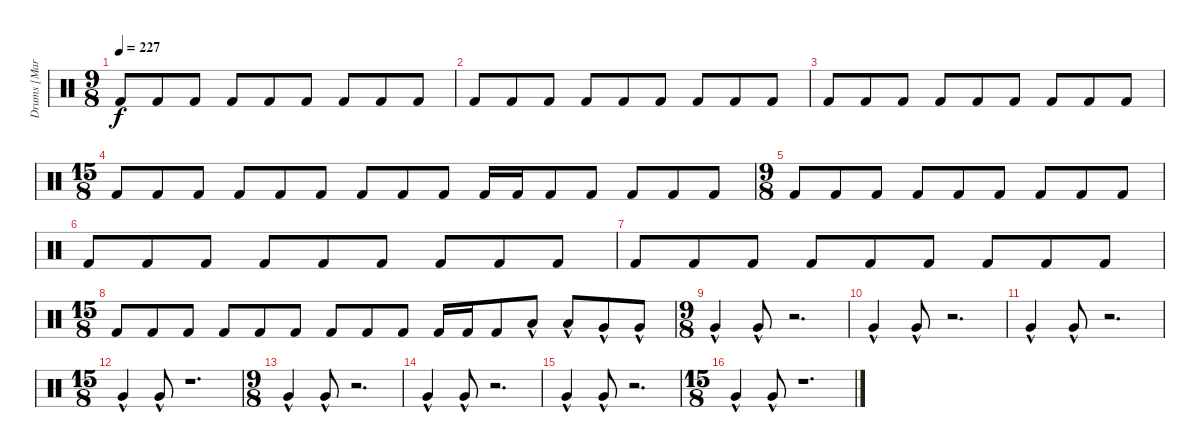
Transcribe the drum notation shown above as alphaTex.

\track ("Drums [Martin Lopez]" "Drums [Mar") {instrument percussion}
\staff {score}
\articulation defaults
\ts (9 8)
\tempo 227
\clef neutral
\ks c "Kick (hit) 2".8{dy f} "Kick (hit) 2".8 "Kick (hit) 2".8 "Kick (hit) 2".8 "Kick (hit) 2".8 "Kick (hit) 2".8 "Kick (hit) 2".8 "Kick (hit) 2".8 "Kick (hit) 2".8
|
"Kick (hit) 2".8 "Kick (hit) 2".8 "Kick (hit) 2".8 "Kick (hit) 2".8 "Kick (hit) 2".8 "Kick (hit) 2".8 "Kick (hit) 2".8 "Kick (hit) 2".8 "Kick (hit) 2".8 |
"Kick (hit) 2".8 "Kick (hit) 2".8 "Kick (hit) 2".8 "Kick (hit) 2".8 "Kick (hit) 2".8 "Kick (hit) 2".8 "Kick (hit) 2".8 "Kick (hit) 2".8 "Kick (hit) 2".8 |
\ts (15 8)
"Kick (hit) 2".8 "Kick (hit) 2".8 "Kick (hit) 2".8 "Kick (hit) 2".8 "Kick (hit) 2".8 "Kick (hit) 2".8 "Kick (hit) 2".8 "Kick (hit) 2".8 "Kick (hit) 2".8 "Kick (hit) 2".16 "Kick (hit) 2".16 "Kick (hit) 2".8 "Kick (hit) 2".8 "Kick (hit) 2".8 "Kick (hit) 2".8 "Kick (hit) 2".8 |
\ts (9 8)
"Kick (hit) 2".8 "Kick (hit) 2".8 "Kick (hit) 2".8 "Kick (hit) 2".8 "Kick (hit) 2".8 "Kick (hit) 2".8 "Kick (hit) 2".8 "Kick (hit) 2".8 "Kick (hit) 2".8 |
"Kick (hit) 2".8 "Kick (hit) 2".8 "Kick (hit) 2".8 "Kick (hit) 2".8 "Kick (hit) 2".8 "Kick (hit) 2".8 "Kick (hit) 2".8 "Kick (hit) 2".8 "Kick (hit) 2".8 |
"Kick (hit) 2".8 "Kick (hit) 2".8 "Kick (hit) 2".8 "Kick (hit) 2".8 "Kick (hit) 2".8 "Kick (hit) 2".8 "Kick (hit) 2".8 "Kick (hit) 2".8 "Kick (hit) 2".8 |
\ts (15 8)
"Kick (hit) 2".8 "Kick (hit) 2".8 "Kick (hit) 2".8 "Kick (hit) 2".8 "Kick (hit) 2".8 "Kick (hit) 2".8 "Kick (hit) 2".8 "Kick (hit) 2".8 "Kick (hit) 2".8 "Kick (hit) 2".16 "Kick (hit) 2".16 "Kick (hit) 2".8 "Low Tom (hit)"{hac}.8 "Low Tom (hit)"{hac}.8 "Very Low Tom (hit)"{hac}.8 "Very Low Tom (hit)"{hac}.8 |
\ts (9 8)
"Very Low Tom (hit)"{hac}.4 "Very Low Tom (hit)"{hac}.8 r.2{d} |
"Very Low Tom (hit)"{hac}.4 "Very Low Tom (hit)"{hac}.8 r.2{d} |
"Very Low Tom (hit)"{hac}.4 "Very Low Tom (hit)"{hac}.8 r.2{d} |
\ts (15 8)
"Very Low Tom (hit)"{hac}.4 "Very Low Tom (hit)"{hac}.8 r.1{d} |
\ts (9 8)
"Very Low Tom (hit)"{hac}.4 "Very Low Tom (hit)"{hac}.8 r.2{d} |
"Very Low Tom (hit)"{hac}.4 "Very Low Tom (hit)"{hac}.8 r.2{d} |
"Very Low Tom (hit)"{hac}.4 "Very Low Tom (hit)"{hac}.8 r.2{d} |
\ts (15 8)
"Very Low Tom (hit)"{hac}.4 "Very Low Tom (hit)"{hac}.8 r.1{d}
